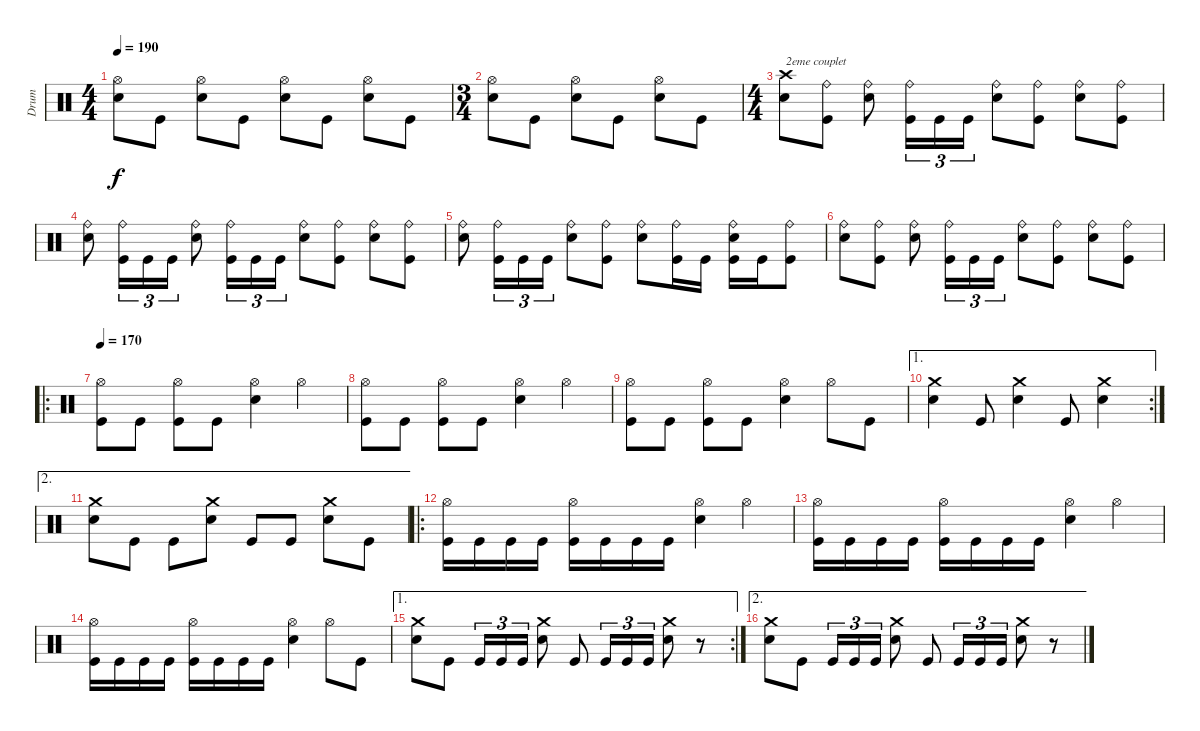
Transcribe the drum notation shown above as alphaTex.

\track ("Drum" "Drum") {instrument percussion}
\staff {score}
\articulation defaults
\ts (4 4)
\tempo 190
\clef neutral
\ks c
("Electric Snare (hit)" "Hi-Hat (open)").8{dy f} "Kick (hit)".8 ("Electric Snare (hit)" "Hi-Hat (open)").8 "Kick (hit)".8 ("Electric Snare (hit)" "Hi-Hat (open)").8 "Kick (hit)".8 ("Electric Snare (hit)" "Hi-Hat (open)").8 "Kick (hit)".8 |
\ts (3 4)
("Electric Snare (hit)" "Hi-Hat (open)").8 "Kick (hit)".8 ("Electric Snare (hit)" "Hi-Hat (open)").8 "Kick (hit)".8 ("Electric Snare (hit)" "Hi-Hat (open)").8 "Kick (hit)".8 |
\ts (4 4)
("Electric Snare (hit)" "Crash high (hit)").8{txt "2eme couplet"} ("Kick (hit)" "Ride (bell)").8 ("Electric Snare (hit)" "Ride (bell)").8 ("Kick (hit)" "Ride (bell)").16{tu (3 2)} "Kick (hit)".16{tu (3 2)} "Kick (hit)".16{tu (3 2)} ("Electric Snare (hit)" "Ride (bell)").8 ("Kick (hit)" "Ride (bell)").8 ("Electric Snare (hit)" "Ride (bell)").8 ("Kick (hit)" "Ride (bell)").8 |
("Electric Snare (hit)" "Ride (bell)").8 ("Kick (hit)" "Ride (bell)").16{tu (3 2)} "Kick (hit)".16{tu (3 2)} "Kick (hit)".16{tu (3 2)} ("Electric Snare (hit)" "Ride (bell)").8 ("Kick (hit)" "Ride (bell)").16{tu (3 2)} "Kick (hit)".16{tu (3 2)} "Kick (hit)".16{tu (3 2)} ("Electric Snare (hit)" "Ride (bell)").8 ("Kick (hit)" "Ride (bell)").8 ("Electric Snare (hit)" "Ride (bell)").8 ("Kick (hit)" "Ride (bell)").8 |
("Electric Snare (hit)" "Ride (bell)").8 ("Kick (hit)" "Ride (bell)").16{tu (3 2)} "Kick (hit)".16{tu (3 2)} "Kick (hit)".16{tu (3 2)} ("Electric Snare (hit)" "Ride (bell)").8 ("Kick (hit)" "Ride (bell)").8 ("Electric Snare (hit)" "Ride (bell)").8 ("Kick (hit)" "Ride (bell)").16 "Kick (hit)".16 ("Kick (hit)" "Electric Snare (hit)" "Ride (bell)").16 "Kick (hit)".16 ("Kick (hit)" "Ride (bell)").8 |
("Electric Snare (hit)" "Ride (bell)").8 ("Kick (hit)" "Ride (bell)").8 ("Electric Snare (hit)" "Ride (bell)").8 ("Kick (hit)" "Ride (bell)").16{tu (3 2)} "Kick (hit)".16{tu (3 2)} "Kick (hit)".16{tu (3 2)} ("Electric Snare (hit)" "Ride (bell)").8 ("Kick (hit)" "Ride (bell)").8 ("Electric Snare (hit)" "Ride (bell)").8 ("Kick (hit)" "Ride (bell)").8 |
\ro
\tempo 170
("Kick (hit)" "Hi-Hat (open)").8 "Kick (hit)".8 ("Kick (hit)" "Hi-Hat (open)").8 "Kick (hit)".8 ("Electric Snare (hit)" "Hi-Hat (open)").4 "Hi-Hat (open)".4 |
("Kick (hit)" "Hi-Hat (open)").8 "Kick (hit)".8 ("Kick (hit)" "Hi-Hat (open)").8 "Kick (hit)".8 ("Electric Snare (hit)" "Hi-Hat (open)").4 "Hi-Hat (open)".4 |
("Kick (hit)" "Hi-Hat (open)").8 "Kick (hit)".8 ("Kick (hit)" "Hi-Hat (open)").8 "Kick (hit)".8 ("Electric Snare (hit)" "Hi-Hat (open)").4 "Hi-Hat (open)".8 "Kick (hit)".8 |
\ae 1
\rc 2
("Electric Snare (hit)" "Crash medium (hit)").4 "Kick (hit)".8 ("Electric Snare (hit)" "Crash medium (hit)").4 "Kick (hit)".8 ("Electric Snare (hit)" "Crash medium (hit)").4 |
\ae 2
("Electric Snare (hit)" "Crash medium (hit)").8 "Kick (hit)".8 "Kick (hit)".8 ("Electric Snare (hit)" "Crash medium (hit)").8 "Kick (hit)".8 "Kick (hit)".8 ("Electric Snare (hit)" "Crash medium (hit)").8 "Kick (hit)".8 |
\ro
("Kick (hit)" "Hi-Hat (open)").16 "Kick (hit)".16 "Kick (hit)".16 "Kick (hit)".16 ("Kick (hit)" "Hi-Hat (open)").16 "Kick (hit)".16 "Kick (hit)".16 "Kick (hit)".16 ("Electric Snare (hit)" "Hi-Hat (open)").4 "Hi-Hat (open)".4 |
("Kick (hit)" "Hi-Hat (open)").16 "Kick (hit)".16 "Kick (hit)".16 "Kick (hit)".16 ("Kick (hit)" "Hi-Hat (open)").16 "Kick (hit)".16 "Kick (hit)".16 "Kick (hit)".16 ("Electric Snare (hit)" "Hi-Hat (open)").4 "Hi-Hat (open)".4 |
("Kick (hit)" "Hi-Hat (open)").16 "Kick (hit)".16 "Kick (hit)".16 "Kick (hit)".16 ("Kick (hit)" "Hi-Hat (open)").16 "Kick (hit)".16 "Kick (hit)".16 "Kick (hit)".16 ("Electric Snare (hit)" "Hi-Hat (open)").4 "Hi-Hat (open)".8 "Kick (hit)".8 |
\ae 1
\rc 2
("Electric Snare (hit)" "Crash medium (hit)").8 "Kick (hit)".8 "Kick (hit)".16{tu (3 2)} "Kick (hit)".16{tu (3 2)} "Kick (hit)".16{tu (3 2)} ("Electric Snare (hit)" "Crash medium (hit)").8 "Kick (hit)".8 "Kick (hit)".16{tu (3 2)} "Kick (hit)".16{tu (3 2)} "Kick (hit)".16{tu (3 2)} ("Electric Snare (hit)" "Crash medium (hit)").8 r.8 |
\ae 2
("Electric Snare (hit)" "Crash medium (hit)").8 "Kick (hit)".8 "Kick (hit)".16{tu (3 2)} "Kick (hit)".16{tu (3 2)} "Kick (hit)".16{tu (3 2)} ("Electric Snare (hit)" "Crash medium (hit)").8 "Kick (hit)".8 "Kick (hit)".16{tu (3 2)} "Kick (hit)".16{tu (3 2)} "Kick (hit)".16{tu (3 2)} ("Electric Snare (hit)" "Crash medium (hit)").8 r.8
